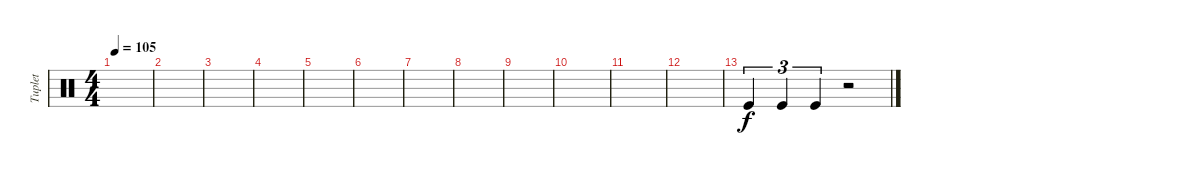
\track ("Tuplet" "Tuplet") {instrument percussion}
\staff {score}
\articulation defaults
\ts (4 4)
\tempo 105
\clef neutral
\ks c
|
|
|
|
|
|
|
|
|
|
|
|
"Kick (hit)".4{tu (3 2)} "Kick (hit)".4{tu (3 2)} "Kick (hit)".4{tu (3 2)} r.2
